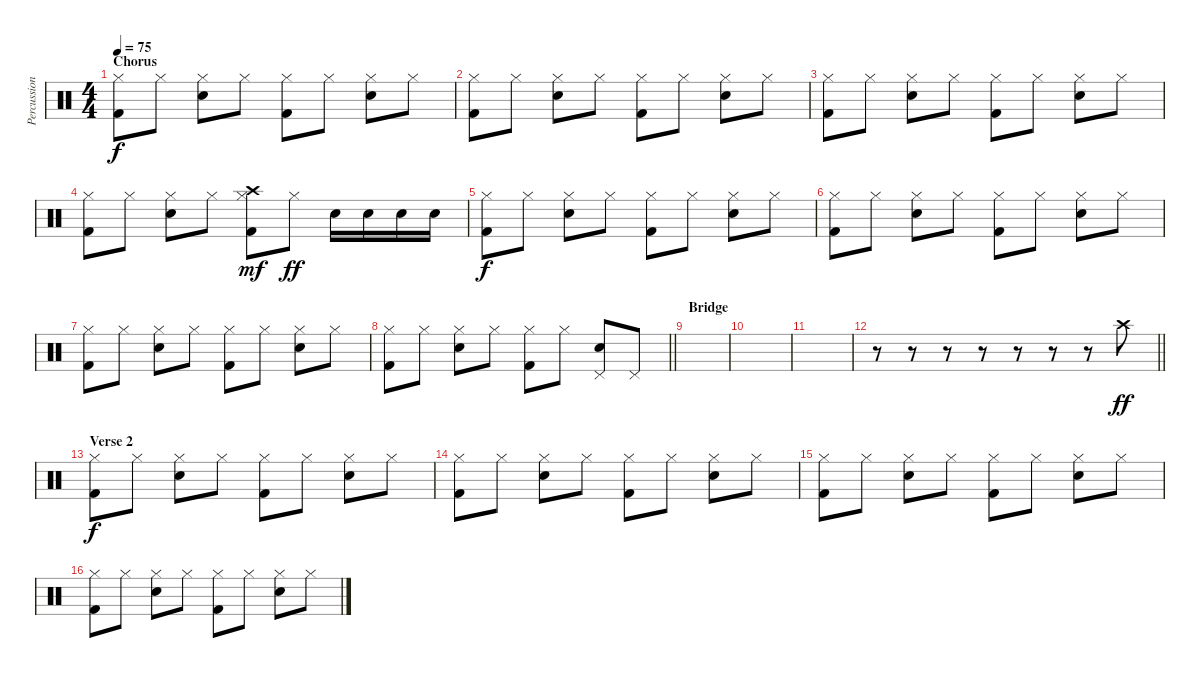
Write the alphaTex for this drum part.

\track ("Percussion" "Percussion") {instrument percussion}
\staff {score}
\articulation defaults
\ts (4 4)
\section ("" "Chorus")
\tempo 75
\clef neutral
\ks c
("Hi-Hat (closed)" "Kick (hit) 2").8{dy f} "Hi-Hat (closed)".8 ("Hi-Hat (closed)" "Snare (hit) 2").8 "Hi-Hat (closed)".8 ("Hi-Hat (closed)" "Kick (hit) 2").8 "Hi-Hat (closed)".8 ("Hi-Hat (closed)" "Snare (hit) 2").8 "Hi-Hat (closed)".8 |
("Hi-Hat (closed)" "Kick (hit) 2").8 "Hi-Hat (closed)".8 ("Hi-Hat (closed)" "Snare (hit) 2").8 "Hi-Hat (closed)".8 ("Hi-Hat (closed)" "Kick (hit) 2").8 "Hi-Hat (closed)".8 ("Hi-Hat (closed)" "Snare (hit) 2").8 "Hi-Hat (closed)".8 |
("Hi-Hat (closed)" "Kick (hit) 2").8 "Hi-Hat (closed)".8 ("Hi-Hat (closed)" "Snare (hit) 2").8 "Hi-Hat (closed)".8 ("Hi-Hat (closed)" "Kick (hit) 2").8 "Hi-Hat (closed)".8 ("Hi-Hat (closed)" "Snare (hit) 2").8 "Hi-Hat (closed)".8 |
("Hi-Hat (closed)" "Kick (hit) 2").8 "Hi-Hat (closed)".8 ("Hi-Hat (closed)" "Snare (hit) 2").8 "Hi-Hat (closed)".8 ("Hi-Hat (closed)" "Kick (hit) 2" "Crash high (hit)").8{dy mf} "Hi-Hat (closed)".8{dy ff} "Snare (hit) 2".16 "Snare (hit) 2".16 "Snare (hit) 2".16 "Snare (hit) 2".16 |
("Hi-Hat (closed)" "Kick (hit) 2").8{dy f} "Hi-Hat (closed)".8 ("Hi-Hat (closed)" "Snare (hit) 2").8 "Hi-Hat (closed)".8 ("Hi-Hat (closed)" "Kick (hit) 2").8 "Hi-Hat (closed)".8 ("Hi-Hat (closed)" "Snare (hit) 2").8 "Hi-Hat (closed)".8 |
("Hi-Hat (closed)" "Kick (hit) 2").8 "Hi-Hat (closed)".8 ("Hi-Hat (closed)" "Snare (hit) 2").8 "Hi-Hat (closed)".8 ("Hi-Hat (closed)" "Kick (hit) 2").8 "Hi-Hat (closed)".8 ("Hi-Hat (closed)" "Snare (hit) 2").8 "Hi-Hat (closed)".8 |
("Hi-Hat (closed)" "Kick (hit) 2").8 "Hi-Hat (closed)".8 ("Hi-Hat (closed)" "Snare (hit) 2").8 "Hi-Hat (closed)".8 ("Hi-Hat (closed)" "Kick (hit) 2").8 "Hi-Hat (closed)".8 ("Hi-Hat (closed)" "Snare (hit) 2").8 "Hi-Hat (closed)".8 |
\barLineRight lightlight
("Hi-Hat (closed)" "Kick (hit) 2").8 "Hi-Hat (closed)".8 ("Hi-Hat (closed)" "Snare (hit) 2").8 "Hi-Hat (closed)".8 ("Hi-Hat (closed)" "Kick (hit) 2").8 "Hi-Hat (closed)".8 ("Pedal Hi-Hat (hit)" "Snare (hit) 2").8 "Pedal Hi-Hat (hit)".8 |
\section ("" "Bridge")
|
|
|
\barLineRight lightlight
r.8 r.8 r.8 r.8 r.8 r.8 r.8 "Crash high (hit)".8{dy ff} |
\section ("" "Verse 2")
("Hi-Hat (closed)" "Kick (hit) 2").8{dy f} "Hi-Hat (closed)".8 ("Hi-Hat (closed)" "Snare (hit) 2").8 "Hi-Hat (closed)".8 ("Hi-Hat (closed)" "Kick (hit) 2").8 "Hi-Hat (closed)".8 ("Hi-Hat (closed)" "Snare (hit) 2").8 "Hi-Hat (closed)".8 |
("Hi-Hat (closed)" "Kick (hit) 2").8 "Hi-Hat (closed)".8 ("Hi-Hat (closed)" "Snare (hit) 2").8 "Hi-Hat (closed)".8 ("Hi-Hat (closed)" "Kick (hit) 2").8 "Hi-Hat (closed)".8 ("Hi-Hat (closed)" "Snare (hit) 2").8 "Hi-Hat (closed)".8 |
("Hi-Hat (closed)" "Kick (hit) 2").8 "Hi-Hat (closed)".8 ("Hi-Hat (closed)" "Snare (hit) 2").8 "Hi-Hat (closed)".8 ("Hi-Hat (closed)" "Kick (hit) 2").8 "Hi-Hat (closed)".8 ("Hi-Hat (closed)" "Snare (hit) 2").8 "Hi-Hat (closed)".8 |
("Hi-Hat (closed)" "Kick (hit) 2").8 "Hi-Hat (closed)".8 ("Hi-Hat (closed)" "Snare (hit) 2").8 "Hi-Hat (closed)".8 ("Hi-Hat (closed)" "Kick (hit) 2").8 "Hi-Hat (closed)".8 ("Hi-Hat (closed)" "Snare (hit) 2").8 "Hi-Hat (closed)".8
